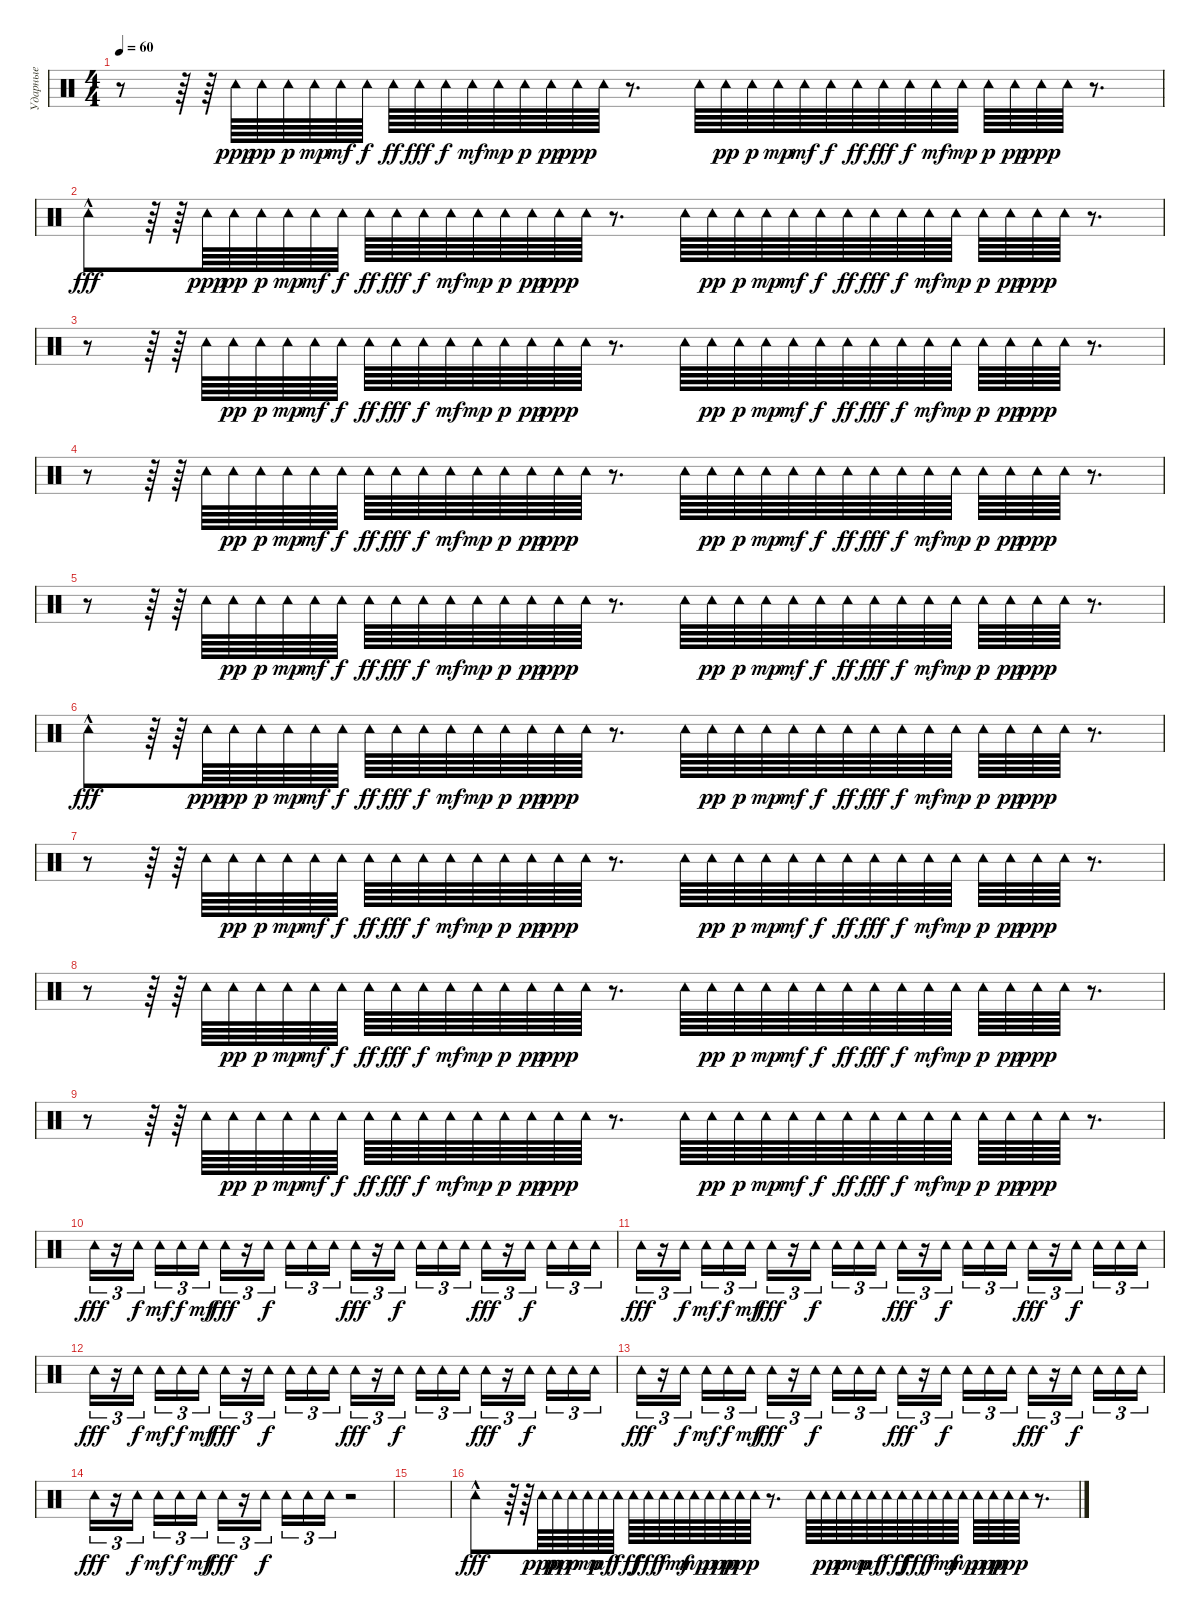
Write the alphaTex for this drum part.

\track ("Ударные" "Ударные") {instrument percussion}
\staff {score}
\articulation defaults
\ts (4 4)
\tempo 60
\clef neutral
\ks c
r.8{dy ppp} r.64 r.64 "Tambourine (hit)".64 "Tambourine (hit)".64{dy pp} "Tambourine (hit)".64{dy p} "Tambourine (hit)".64{dy mp} "Tambourine (hit)".64{dy mf} "Tambourine (hit)".64{dy f} "Tambourine (hit)".64{dy ff} "Tambourine (hit)".64{dy fff} "Tambourine (hit)".64{dy f} "Tambourine (hit)".64{dy mf} "Tambourine (hit)".64{dy mp} "Tambourine (hit)".64{dy p} "Tambourine (hit)".64{dy pp} "Tambourine (hit)".64{dy ppp} "Tambourine (hit)".64 r.8{d} "Tambourine (hit)".64 "Tambourine (hit)".64{dy pp} "Tambourine (hit)".64{dy p} "Tambourine (hit)".64{dy mp} "Tambourine (hit)".64{dy mf} "Tambourine (hit)".64{dy f} "Tambourine (hit)".64{dy ff} "Tambourine (hit)".64{dy fff} "Tambourine (hit)".64{dy f} "Tambourine (hit)".64{dy mf} "Tambourine (hit)".64{dy mp} "Tambourine (hit)".64{dy p} "Tambourine (hit)".64{dy pp} "Tambourine (hit)".64{dy ppp} "Tambourine (hit)".64 r.8{d} |
"Tambourine (hit)"{hac}.8{dy fff} r.64 r.64 "Tambourine (hit)".64{dy ppp} "Tambourine (hit)".64{dy pp} "Tambourine (hit)".64{dy p} "Tambourine (hit)".64{dy mp} "Tambourine (hit)".64{dy mf} "Tambourine (hit)".64{dy f} "Tambourine (hit)".64{dy ff} "Tambourine (hit)".64{dy fff} "Tambourine (hit)".64{dy f} "Tambourine (hit)".64{dy mf} "Tambourine (hit)".64{dy mp} "Tambourine (hit)".64{dy p} "Tambourine (hit)".64{dy pp} "Tambourine (hit)".64{dy ppp} "Tambourine (hit)".64 r.8{d} "Tambourine (hit)".64 "Tambourine (hit)".64{dy pp} "Tambourine (hit)".64{dy p} "Tambourine (hit)".64{dy mp} "Tambourine (hit)".64{dy mf} "Tambourine (hit)".64{dy f} "Tambourine (hit)".64{dy ff} "Tambourine (hit)".64{dy fff} "Tambourine (hit)".64{dy f} "Tambourine (hit)".64{dy mf} "Tambourine (hit)".64{dy mp} "Tambourine (hit)".64{dy p} "Tambourine (hit)".64{dy pp} "Tambourine (hit)".64{dy ppp} "Tambourine (hit)".64 r.8{d} |
r.8 r.64 r.64 "Tambourine (hit)".64 "Tambourine (hit)".64{dy pp} "Tambourine (hit)".64{dy p} "Tambourine (hit)".64{dy mp} "Tambourine (hit)".64{dy mf} "Tambourine (hit)".64{dy f} "Tambourine (hit)".64{dy ff} "Tambourine (hit)".64{dy fff} "Tambourine (hit)".64{dy f} "Tambourine (hit)".64{dy mf} "Tambourine (hit)".64{dy mp} "Tambourine (hit)".64{dy p} "Tambourine (hit)".64{dy pp} "Tambourine (hit)".64{dy ppp} "Tambourine (hit)".64 r.8{d} "Tambourine (hit)".64 "Tambourine (hit)".64{dy pp} "Tambourine (hit)".64{dy p} "Tambourine (hit)".64{dy mp} "Tambourine (hit)".64{dy mf} "Tambourine (hit)".64{dy f} "Tambourine (hit)".64{dy ff} "Tambourine (hit)".64{dy fff} "Tambourine (hit)".64{dy f} "Tambourine (hit)".64{dy mf} "Tambourine (hit)".64{dy mp} "Tambourine (hit)".64{dy p} "Tambourine (hit)".64{dy pp} "Tambourine (hit)".64{dy ppp} "Tambourine (hit)".64 r.8{d} |
r.8 r.64 r.64 "Tambourine (hit)".64 "Tambourine (hit)".64{dy pp} "Tambourine (hit)".64{dy p} "Tambourine (hit)".64{dy mp} "Tambourine (hit)".64{dy mf} "Tambourine (hit)".64{dy f} "Tambourine (hit)".64{dy ff} "Tambourine (hit)".64{dy fff} "Tambourine (hit)".64{dy f} "Tambourine (hit)".64{dy mf} "Tambourine (hit)".64{dy mp} "Tambourine (hit)".64{dy p} "Tambourine (hit)".64{dy pp} "Tambourine (hit)".64{dy ppp} "Tambourine (hit)".64 r.8{d} "Tambourine (hit)".64 "Tambourine (hit)".64{dy pp} "Tambourine (hit)".64{dy p} "Tambourine (hit)".64{dy mp} "Tambourine (hit)".64{dy mf} "Tambourine (hit)".64{dy f} "Tambourine (hit)".64{dy ff} "Tambourine (hit)".64{dy fff} "Tambourine (hit)".64{dy f} "Tambourine (hit)".64{dy mf} "Tambourine (hit)".64{dy mp} "Tambourine (hit)".64{dy p} "Tambourine (hit)".64{dy pp} "Tambourine (hit)".64{dy ppp} "Tambourine (hit)".64 r.8{d} |
r.8 r.64 r.64 "Tambourine (hit)".64 "Tambourine (hit)".64{dy pp} "Tambourine (hit)".64{dy p} "Tambourine (hit)".64{dy mp} "Tambourine (hit)".64{dy mf} "Tambourine (hit)".64{dy f} "Tambourine (hit)".64{dy ff} "Tambourine (hit)".64{dy fff} "Tambourine (hit)".64{dy f} "Tambourine (hit)".64{dy mf} "Tambourine (hit)".64{dy mp} "Tambourine (hit)".64{dy p} "Tambourine (hit)".64{dy pp} "Tambourine (hit)".64{dy ppp} "Tambourine (hit)".64 r.8{d} "Tambourine (hit)".64 "Tambourine (hit)".64{dy pp} "Tambourine (hit)".64{dy p} "Tambourine (hit)".64{dy mp} "Tambourine (hit)".64{dy mf} "Tambourine (hit)".64{dy f} "Tambourine (hit)".64{dy ff} "Tambourine (hit)".64{dy fff} "Tambourine (hit)".64{dy f} "Tambourine (hit)".64{dy mf} "Tambourine (hit)".64{dy mp} "Tambourine (hit)".64{dy p} "Tambourine (hit)".64{dy pp} "Tambourine (hit)".64{dy ppp} "Tambourine (hit)".64 r.8{d} |
"Tambourine (hit)"{hac}.8{dy fff} r.64 r.64 "Tambourine (hit)".64{dy ppp} "Tambourine (hit)".64{dy pp} "Tambourine (hit)".64{dy p} "Tambourine (hit)".64{dy mp} "Tambourine (hit)".64{dy mf} "Tambourine (hit)".64{dy f} "Tambourine (hit)".64{dy ff} "Tambourine (hit)".64{dy fff} "Tambourine (hit)".64{dy f} "Tambourine (hit)".64{dy mf} "Tambourine (hit)".64{dy mp} "Tambourine (hit)".64{dy p} "Tambourine (hit)".64{dy pp} "Tambourine (hit)".64{dy ppp} "Tambourine (hit)".64 r.8{d} "Tambourine (hit)".64 "Tambourine (hit)".64{dy pp} "Tambourine (hit)".64{dy p} "Tambourine (hit)".64{dy mp} "Tambourine (hit)".64{dy mf} "Tambourine (hit)".64{dy f} "Tambourine (hit)".64{dy ff} "Tambourine (hit)".64{dy fff} "Tambourine (hit)".64{dy f} "Tambourine (hit)".64{dy mf} "Tambourine (hit)".64{dy mp} "Tambourine (hit)".64{dy p} "Tambourine (hit)".64{dy pp} "Tambourine (hit)".64{dy ppp} "Tambourine (hit)".64 r.8{d} |
r.8 r.64 r.64 "Tambourine (hit)".64 "Tambourine (hit)".64{dy pp} "Tambourine (hit)".64{dy p} "Tambourine (hit)".64{dy mp} "Tambourine (hit)".64{dy mf} "Tambourine (hit)".64{dy f} "Tambourine (hit)".64{dy ff} "Tambourine (hit)".64{dy fff} "Tambourine (hit)".64{dy f} "Tambourine (hit)".64{dy mf} "Tambourine (hit)".64{dy mp} "Tambourine (hit)".64{dy p} "Tambourine (hit)".64{dy pp} "Tambourine (hit)".64{dy ppp} "Tambourine (hit)".64 r.8{d} "Tambourine (hit)".64 "Tambourine (hit)".64{dy pp} "Tambourine (hit)".64{dy p} "Tambourine (hit)".64{dy mp} "Tambourine (hit)".64{dy mf} "Tambourine (hit)".64{dy f} "Tambourine (hit)".64{dy ff} "Tambourine (hit)".64{dy fff} "Tambourine (hit)".64{dy f} "Tambourine (hit)".64{dy mf} "Tambourine (hit)".64{dy mp} "Tambourine (hit)".64{dy p} "Tambourine (hit)".64{dy pp} "Tambourine (hit)".64{dy ppp} "Tambourine (hit)".64 r.8{d} |
r.8 r.64 r.64 "Tambourine (hit)".64 "Tambourine (hit)".64{dy pp} "Tambourine (hit)".64{dy p} "Tambourine (hit)".64{dy mp} "Tambourine (hit)".64{dy mf} "Tambourine (hit)".64{dy f} "Tambourine (hit)".64{dy ff} "Tambourine (hit)".64{dy fff} "Tambourine (hit)".64{dy f} "Tambourine (hit)".64{dy mf} "Tambourine (hit)".64{dy mp} "Tambourine (hit)".64{dy p} "Tambourine (hit)".64{dy pp} "Tambourine (hit)".64{dy ppp} "Tambourine (hit)".64 r.8{d} "Tambourine (hit)".64 "Tambourine (hit)".64{dy pp} "Tambourine (hit)".64{dy p} "Tambourine (hit)".64{dy mp} "Tambourine (hit)".64{dy mf} "Tambourine (hit)".64{dy f} "Tambourine (hit)".64{dy ff} "Tambourine (hit)".64{dy fff} "Tambourine (hit)".64{dy f} "Tambourine (hit)".64{dy mf} "Tambourine (hit)".64{dy mp} "Tambourine (hit)".64{dy p} "Tambourine (hit)".64{dy pp} "Tambourine (hit)".64{dy ppp} "Tambourine (hit)".64 r.8{d} |
r.8 r.64 r.64 "Tambourine (hit)".64 "Tambourine (hit)".64{dy pp} "Tambourine (hit)".64{dy p} "Tambourine (hit)".64{dy mp} "Tambourine (hit)".64{dy mf} "Tambourine (hit)".64{dy f} "Tambourine (hit)".64{dy ff} "Tambourine (hit)".64{dy fff} "Tambourine (hit)".64{dy f} "Tambourine (hit)".64{dy mf} "Tambourine (hit)".64{dy mp} "Tambourine (hit)".64{dy p} "Tambourine (hit)".64{dy pp} "Tambourine (hit)".64{dy ppp} "Tambourine (hit)".64 r.8{d} "Tambourine (hit)".64 "Tambourine (hit)".64{dy pp} "Tambourine (hit)".64{dy p} "Tambourine (hit)".64{dy mp} "Tambourine (hit)".64{dy mf} "Tambourine (hit)".64{dy f} "Tambourine (hit)".64{dy ff} "Tambourine (hit)".64{dy fff} "Tambourine (hit)".64{dy f} "Tambourine (hit)".64{dy mf} "Tambourine (hit)".64{dy mp} "Tambourine (hit)".64{dy p} "Tambourine (hit)".64{dy pp} "Tambourine (hit)".64{dy ppp} "Tambourine (hit)".64 r.8{d} |
"Tambourine (hit)".16{tu (3 2) dy fff} r.16{tu (3 2)} "Tambourine (hit)".16{tu (3 2) dy f beam splitsecondary} "Tambourine (hit)".16{tu (3 2) dy mf} "Tambourine (hit)".16{tu (3 2) dy f} "Tambourine (hit)".16{tu (3 2) dy mf} "Tambourine (hit)".16{tu (3 2) dy fff} r.16{tu (3 2)} "Tambourine (hit)".16{tu (3 2) dy f beam splitsecondary} "Tambourine (hit)".16{tu (3 2)} "Tambourine (hit)".16{tu (3 2)} "Tambourine (hit)".16{tu (3 2)} "Tambourine (hit)".16{tu (3 2) dy fff} r.16{tu (3 2)} "Tambourine (hit)".16{tu (3 2) dy f beam splitsecondary} "Tambourine (hit)".16{tu (3 2)} "Tambourine (hit)".16{tu (3 2)} "Tambourine (hit)".16{tu (3 2)} "Tambourine (hit)".16{tu (3 2) dy fff} r.16{tu (3 2)} "Tambourine (hit)".16{tu (3 2) dy f beam splitsecondary} "Tambourine (hit)".16{tu (3 2)} "Tambourine (hit)".16{tu (3 2)} "Tambourine (hit)".16{tu (3 2)} |
"Tambourine (hit)".16{tu (3 2) dy fff} r.16{tu (3 2)} "Tambourine (hit)".16{tu (3 2) dy f beam splitsecondary} "Tambourine (hit)".16{tu (3 2) dy mf} "Tambourine (hit)".16{tu (3 2) dy f} "Tambourine (hit)".16{tu (3 2) dy mf} "Tambourine (hit)".16{tu (3 2) dy fff} r.16{tu (3 2)} "Tambourine (hit)".16{tu (3 2) dy f beam splitsecondary} "Tambourine (hit)".16{tu (3 2)} "Tambourine (hit)".16{tu (3 2)} "Tambourine (hit)".16{tu (3 2)} "Tambourine (hit)".16{tu (3 2) dy fff} r.16{tu (3 2)} "Tambourine (hit)".16{tu (3 2) dy f beam splitsecondary} "Tambourine (hit)".16{tu (3 2)} "Tambourine (hit)".16{tu (3 2)} "Tambourine (hit)".16{tu (3 2)} "Tambourine (hit)".16{tu (3 2) dy fff} r.16{tu (3 2)} "Tambourine (hit)".16{tu (3 2) dy f beam splitsecondary} "Tambourine (hit)".16{tu (3 2)} "Tambourine (hit)".16{tu (3 2)} "Tambourine (hit)".16{tu (3 2)} |
"Tambourine (hit)".16{tu (3 2) dy fff} r.16{tu (3 2)} "Tambourine (hit)".16{tu (3 2) dy f beam splitsecondary} "Tambourine (hit)".16{tu (3 2) dy mf} "Tambourine (hit)".16{tu (3 2) dy f} "Tambourine (hit)".16{tu (3 2) dy mf} "Tambourine (hit)".16{tu (3 2) dy fff} r.16{tu (3 2)} "Tambourine (hit)".16{tu (3 2) dy f beam splitsecondary} "Tambourine (hit)".16{tu (3 2)} "Tambourine (hit)".16{tu (3 2)} "Tambourine (hit)".16{tu (3 2)} "Tambourine (hit)".16{tu (3 2) dy fff} r.16{tu (3 2)} "Tambourine (hit)".16{tu (3 2) dy f beam splitsecondary} "Tambourine (hit)".16{tu (3 2)} "Tambourine (hit)".16{tu (3 2)} "Tambourine (hit)".16{tu (3 2)} "Tambourine (hit)".16{tu (3 2) dy fff} r.16{tu (3 2)} "Tambourine (hit)".16{tu (3 2) dy f beam splitsecondary} "Tambourine (hit)".16{tu (3 2)} "Tambourine (hit)".16{tu (3 2)} "Tambourine (hit)".16{tu (3 2)} |
"Tambourine (hit)".16{tu (3 2) dy fff} r.16{tu (3 2)} "Tambourine (hit)".16{tu (3 2) dy f beam splitsecondary} "Tambourine (hit)".16{tu (3 2) dy mf} "Tambourine (hit)".16{tu (3 2) dy f} "Tambourine (hit)".16{tu (3 2) dy mf} "Tambourine (hit)".16{tu (3 2) dy fff} r.16{tu (3 2)} "Tambourine (hit)".16{tu (3 2) dy f beam splitsecondary} "Tambourine (hit)".16{tu (3 2)} "Tambourine (hit)".16{tu (3 2)} "Tambourine (hit)".16{tu (3 2)} "Tambourine (hit)".16{tu (3 2) dy fff} r.16{tu (3 2)} "Tambourine (hit)".16{tu (3 2) dy f beam splitsecondary} "Tambourine (hit)".16{tu (3 2)} "Tambourine (hit)".16{tu (3 2)} "Tambourine (hit)".16{tu (3 2)} "Tambourine (hit)".16{tu (3 2) dy fff} r.16{tu (3 2)} "Tambourine (hit)".16{tu (3 2) dy f beam splitsecondary} "Tambourine (hit)".16{tu (3 2)} "Tambourine (hit)".16{tu (3 2)} "Tambourine (hit)".16{tu (3 2)} |
"Tambourine (hit)".16{tu (3 2) dy fff} r.16{tu (3 2)} "Tambourine (hit)".16{tu (3 2) dy f beam splitsecondary} "Tambourine (hit)".16{tu (3 2) dy mf} "Tambourine (hit)".16{tu (3 2) dy f} "Tambourine (hit)".16{tu (3 2) dy mf} "Tambourine (hit)".16{tu (3 2) dy fff} r.16{tu (3 2)} "Tambourine (hit)".16{tu (3 2) dy f beam splitsecondary} "Tambourine (hit)".16{tu (3 2)} "Tambourine (hit)".16{tu (3 2)} "Tambourine (hit)".16{tu (3 2)} r.2 |
|
"Tambourine (hit)"{hac}.8{dy fff} r.64 r.64 "Tambourine (hit)".64{dy ppp} "Tambourine (hit)".64{dy pp} "Tambourine (hit)".64{dy p} "Tambourine (hit)".64{dy mp} "Tambourine (hit)".64{dy mf} "Tambourine (hit)".64{dy f} "Tambourine (hit)".64{dy ff} "Tambourine (hit)".64{dy fff} "Tambourine (hit)".64{dy f} "Tambourine (hit)".64{dy mf} "Tambourine (hit)".64{dy mp} "Tambourine (hit)".64{dy p} "Tambourine (hit)".64{dy pp} "Tambourine (hit)".64{dy ppp} "Tambourine (hit)".64 r.8{d} "Tambourine (hit)".64 "Tambourine (hit)".64{dy pp} "Tambourine (hit)".64{dy p} "Tambourine (hit)".64{dy mp} "Tambourine (hit)".64{dy mf} "Tambourine (hit)".64{dy f} "Tambourine (hit)".64{dy ff} "Tambourine (hit)".64{dy fff} "Tambourine (hit)".64{dy f} "Tambourine (hit)".64{dy mf} "Tambourine (hit)".64{dy mp} "Tambourine (hit)".64{dy p} "Tambourine (hit)".64{dy pp} "Tambourine (hit)".64{dy ppp} "Tambourine (hit)".64 r.8{d}
